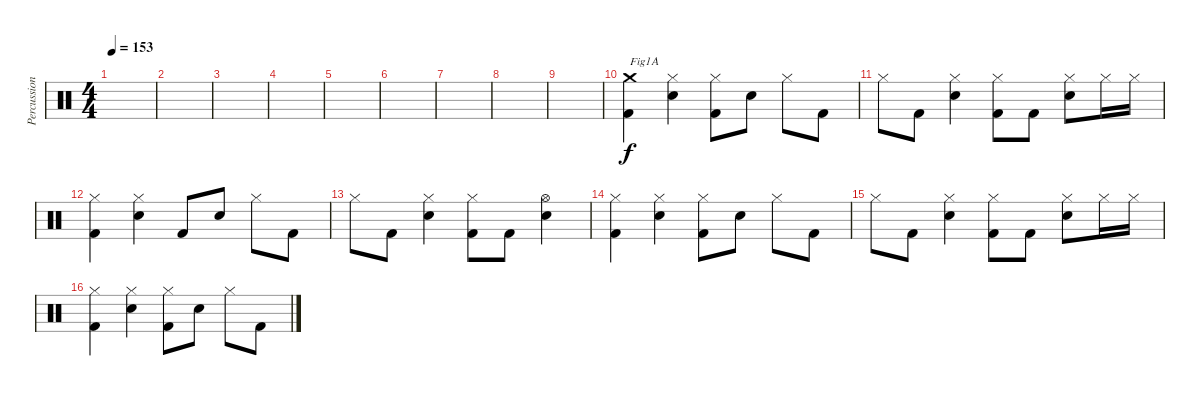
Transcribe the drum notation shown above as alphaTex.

\track ("Percussions" "Percussion") {instrument percussion}
\staff {score}
\articulation defaults
\ts (4 4)
\tempo 153
\clef neutral
\ks c
|
|
|
|
|
|
|
|
|
("Kick (hit) 2" "Crash medium (hit)").4{txt "Fig1A"} ("Electric Snare (hit)" "Hi-Hat (closed)").4 ("Kick (hit) 2" "Hi-Hat (closed)").8 "Electric Snare (hit)".8 "Hi-Hat (closed)".8 "Kick (hit) 2".8 |
"Hi-Hat (closed)".8 "Kick (hit) 2".8 ("Electric Snare (hit)" "Hi-Hat (closed)").4 ("Kick (hit) 2" "Hi-Hat (closed)").8 "Kick (hit) 2".8 ("Electric Snare (hit)" "Hi-Hat (closed)").8 "Hi-Hat (closed)".16 "Hi-Hat (closed)".16 |
("Kick (hit) 2" "Hi-Hat (closed)").4 ("Electric Snare (hit)" "Hi-Hat (closed)").4 "Kick (hit) 2".8 "Electric Snare (hit)".8 "Hi-Hat (closed)".8 "Kick (hit) 2".8 |
"Hi-Hat (closed)".8 "Kick (hit) 2".8 ("Electric Snare (hit)" "Hi-Hat (closed)").4 ("Kick (hit) 2" "Hi-Hat (closed)").8 "Kick (hit) 2".8 ("Electric Snare (hit)" "Hi-Hat (open)").4 |
("Kick (hit) 2" "Hi-Hat (closed)").4 ("Electric Snare (hit)" "Hi-Hat (closed)").4 ("Kick (hit) 2" "Hi-Hat (closed)").8 "Electric Snare (hit)".8 "Hi-Hat (closed)".8 "Kick (hit) 2".8 |
"Hi-Hat (closed)".8 "Kick (hit) 2".8 ("Electric Snare (hit)" "Hi-Hat (closed)").4 ("Kick (hit) 2" "Hi-Hat (closed)").8 "Kick (hit) 2".8 ("Electric Snare (hit)" "Hi-Hat (closed)").8 "Hi-Hat (closed)".16 "Hi-Hat (closed)".16 |
("Kick (hit) 2" "Hi-Hat (closed)").4 ("Electric Snare (hit)" "Hi-Hat (closed)").4 ("Kick (hit) 2" "Hi-Hat (closed)").8 "Electric Snare (hit)".8 "Hi-Hat (closed)".8 "Kick (hit) 2".8
